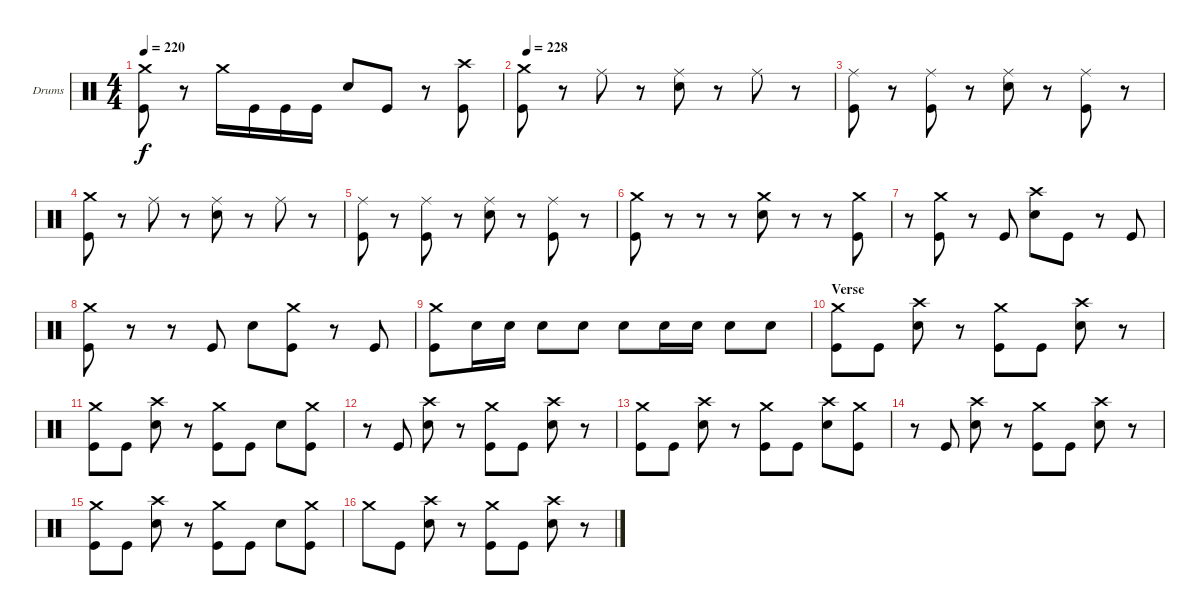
\bracketExtendMode groupsimilarinstruments
\firstSystemTrackNameOrientation horizontal
\otherSystemsTrackNameOrientation horizontal
\track ("Drumkit" "Drums") {instrument percussion}
\staff {score}
\articulation defaults
\ts (4 4)
\tempo 220
\clef neutral
\ks c
("Crash medium (hit)" "Kick (hit)").8{dy f} r.8 "Crash medium (hit)".16 "Kick (hit)".16 "Kick (hit)".16 "Kick (hit)".16 "Snare (hit) 2".8 "Kick (hit)".8 r.8 ("Crash high (hit)" "Kick (hit)").8 |
\tempo (228 0.0125)
("Crash medium (hit)" "Kick (hit)").8 r.8 "Ride (middle)".8 r.8 ("Ride (middle)" "Snare (hit) 2").8 r.8 "Ride (middle)".8 r.8 |
("Ride (middle)" "Kick (hit)").8 r.8 ("Ride (middle)" "Kick (hit)").8 r.8 ("Ride (middle)" "Snare (hit) 2").8 r.8 ("Ride (middle)" "Kick (hit)").8 r.8 |
("Crash medium (hit)" "Kick (hit)").8 r.8 "Ride (middle)".8 r.8 ("Ride (middle)" "Snare (hit) 2").8 r.8 "Ride (middle)".8 r.8 |
("Ride (middle)" "Kick (hit)").8 r.8 ("Ride (middle)" "Kick (hit)").8 r.8 ("Ride (middle)" "Snare (hit) 2").8 r.8 ("Ride (middle)" "Kick (hit)").8 r.8 |
("Crash medium (hit)" "Kick (hit)").8 r.8 r.8 r.8 ("Crash medium (hit)" "Snare (hit) 2").8 r.8 r.8 ("Crash medium (hit)" "Kick (hit)").8 |
r.8 ("Crash medium (hit)" "Kick (hit)").8 r.8 "Kick (hit)".8 ("Crash high (hit)" "Snare (hit) 2").8 "Kick (hit)".8 r.8 "Kick (hit)".8 |
("Crash medium (hit)" "Kick (hit)").8 r.8 r.8 "Kick (hit)".8 "Snare (hit) 2".8 ("Crash medium (hit)" "Kick (hit)").8 r.8 "Kick (hit)".8 |
("Crash medium (hit)" "Kick (hit)").8 "Snare (hit) 2".16 "Snare (hit) 2".16 "Snare (hit) 2".8 "Snare (hit) 2".8 "Snare (hit) 2".8 "Snare (hit) 2".16 "Snare (hit) 2".16 "Snare (hit) 2".8 "Snare (hit) 2".8 |
\section ("" "Verse")
("Crash medium (hit)" "Kick (hit)").8 "Kick (hit)".8 ("Crash high (hit)" "Snare (hit) 2").8 r.8 ("Crash medium (hit)" "Kick (hit)").8 "Kick (hit)".8 ("Crash high (hit)" "Snare (hit) 2").8 r.8 |
("Crash medium (hit)" "Kick (hit)").8 "Kick (hit)".8 ("Crash high (hit)" "Snare (hit) 2").8 r.8 ("Crash medium (hit)" "Kick (hit)").8 "Kick (hit)".8 "Snare (hit) 2".8 ("Kick (hit)" "Crash medium (hit)").8 |
r.8 "Kick (hit)".8 ("Crash high (hit)" "Snare (hit) 2").8 r.8 ("Crash medium (hit)" "Kick (hit)").8 "Kick (hit)".8 ("Crash high (hit)" "Snare (hit) 2").8 r.8 |
("Crash medium (hit)" "Kick (hit)").8 "Kick (hit)".8 ("Crash high (hit)" "Snare (hit) 2").8 r.8 ("Crash medium (hit)" "Kick (hit)").8 "Kick (hit)".8 ("Crash high (hit)" "Snare (hit) 2").8 ("Kick (hit)" "Crash medium (hit)").8 |
r.8 "Kick (hit)".8 ("Crash high (hit)" "Snare (hit) 2").8 r.8 ("Crash medium (hit)" "Kick (hit)").8 "Kick (hit)".8 ("Crash high (hit)" "Snare (hit) 2").8 r.8 |
("Crash medium (hit)" "Kick (hit)").8 "Kick (hit)".8 ("Crash high (hit)" "Snare (hit) 2").8 r.8 ("Crash medium (hit)" "Kick (hit)").8 "Kick (hit)".8 "Snare (hit) 2".8 ("Kick (hit)" "Crash medium (hit)").8 |
"Crash medium (hit)".8 "Kick (hit)".8 ("Crash high (hit)" "Snare (hit) 2").8 r.8 ("Crash medium (hit)" "Kick (hit)").8 "Kick (hit)".8 ("Crash high (hit)" "Snare (hit) 2").8 r.8
